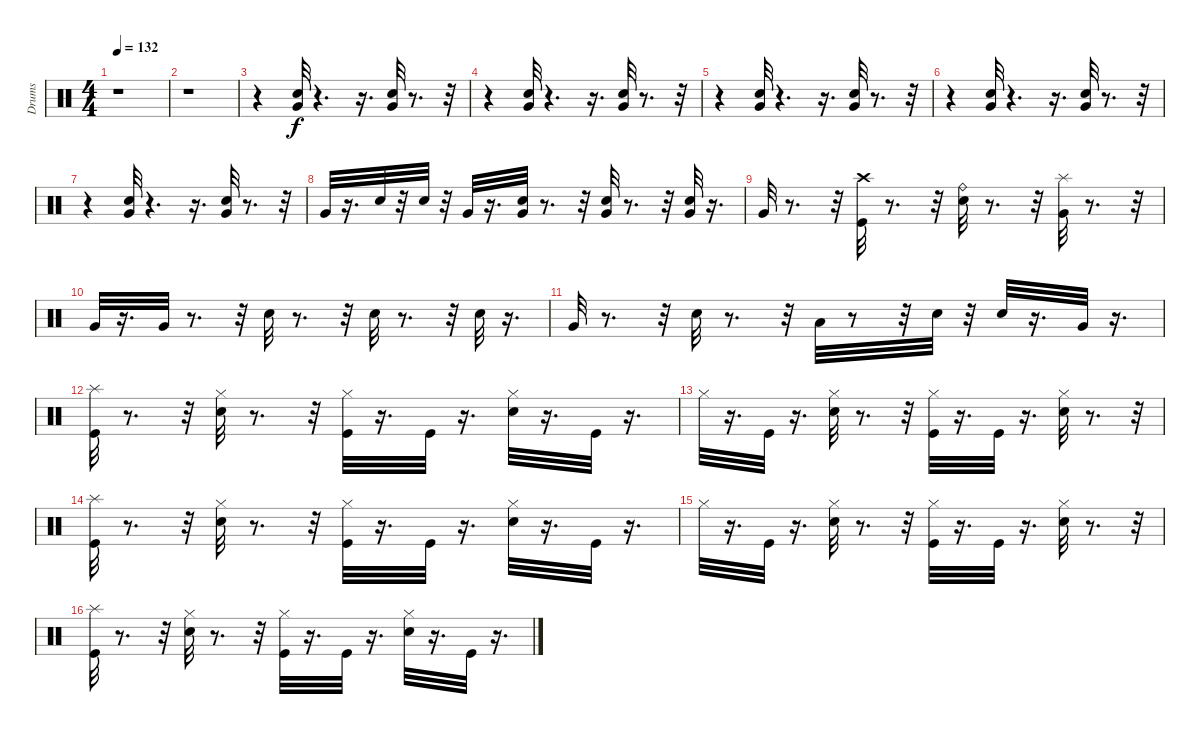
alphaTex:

\track ("Drums" "Drums") {instrument percussion}
\staff {score}
\articulation defaults
\ts (4 4)
\tempo 132
\clef neutral
\ks c
r.1{dy f} |
r.1 |
r.4 ("Snare (hit) 2" "Very Low Tom (hit)").32 r.4{d} r.16{d} ("Snare (hit) 2" "Very Low Tom (hit)").32 r.8{d} r.32 |
r.4 ("Snare (hit) 2" "Very Low Tom (hit)").32 r.4{d} r.16{d} ("Snare (hit) 2" "Very Low Tom (hit)").32 r.8{d} r.32 |
r.4 ("Snare (hit) 2" "Very Low Tom (hit)").32 r.4{d} r.16{d} ("Snare (hit) 2" "Very Low Tom (hit)").32 r.8{d} r.32 |
r.4 ("Snare (hit) 2" "Very Low Tom (hit)").32 r.4{d} r.16{d} ("Snare (hit) 2" "Very Low Tom (hit)").32 r.8{d} r.32 |
r.4 ("Snare (hit) 2" "Very Low Tom (hit)").32 r.4{d} r.16{d} ("Snare (hit) 2" "Very Low Tom (hit)").32 r.8{d} r.32 |
"Very Low Tom (hit)".32 r.16{d} "Snare (hit) 2".32 r.32 "Snare (hit) 2".32 r.32 "Very Low Tom (hit)".32 r.16{d} ("Very Low Tom (hit)" "Snare (hit) 2").32 r.8{d} r.32 ("Very Low Tom (hit)" "Snare (hit) 2").32 r.8{d} r.32 ("Very Low Tom (hit)" "Snare (hit) 2").32 r.16{d} |
"Very Low Tom (hit)".32 r.8{d} r.32 ("Kick (hit)" "Crash high (hit)").32 r.8{d} r.32 ("Ride (bell)" "Snare (hit) 2").32 r.8{d} r.32 ("Very Low Tom (hit)" "Splash (hit)").32 r.8{d} r.32 |
"Very Low Tom (hit)".32 r.16{d} "Very Low Tom (hit)".32 r.8{d} r.32 "Snare (hit) 2".32 r.8{d} r.32 "Snare (hit) 2".32 r.8{d} r.32 "Snare (hit) 2".32 r.16{d} |
"Very Low Tom (hit)".32 r.8{d} r.32 "Snare (hit) 2".32 r.8{d} r.32 "Low Tom (hit)".32 r.8 r.32 "Snare (hit) 2".32 r.32 "Snare (hit) 2".32 r.16{d} "Very Low Tom (hit)".32 r.16{d} |
("Splash (hit)" "Kick (hit)").32 r.8{d} r.32 ("Hi-Hat (closed)" "Snare (hit) 2").32 r.8{d} r.32 ("Kick (hit)" "Hi-Hat (closed)").32 r.16{d} "Kick (hit)".32 r.16{d} ("Hi-Hat (closed)" "Snare (hit) 2").32 r.16{d} "Kick (hit)".32 r.16{d} |
"Hi-Hat (closed)".32 r.16{d} "Kick (hit)".32 r.16{d} ("Hi-Hat (closed)" "Snare (hit) 2").32 r.8{d} r.32 ("Hi-Hat (closed)" "Kick (hit)").32 r.16{d} "Kick (hit)".32 r.16{d} ("Snare (hit) 2" "Hi-Hat (closed)").32 r.8{d} r.32 |
("Splash (hit)" "Kick (hit)").32 r.8{d} r.32 ("Hi-Hat (closed)" "Snare (hit) 2").32 r.8{d} r.32 ("Kick (hit)" "Hi-Hat (closed)").32 r.16{d} "Kick (hit)".32 r.16{d} ("Hi-Hat (closed)" "Snare (hit) 2").32 r.16{d} "Kick (hit)".32 r.16{d} |
"Hi-Hat (closed)".32 r.16{d} "Kick (hit)".32 r.16{d} ("Hi-Hat (closed)" "Snare (hit) 2").32 r.8{d} r.32 ("Hi-Hat (closed)" "Kick (hit)").32 r.16{d} "Kick (hit)".32 r.16{d} ("Snare (hit) 2" "Hi-Hat (closed)").32 r.8{d} r.32 |
("Splash (hit)" "Kick (hit)").32 r.8{d} r.32 ("Hi-Hat (closed)" "Snare (hit) 2").32 r.8{d} r.32 ("Kick (hit)" "Hi-Hat (closed)").32 r.16{d} "Kick (hit)".32 r.16{d} ("Hi-Hat (closed)" "Snare (hit) 2").32 r.16{d} "Kick (hit)".32 r.16{d}
